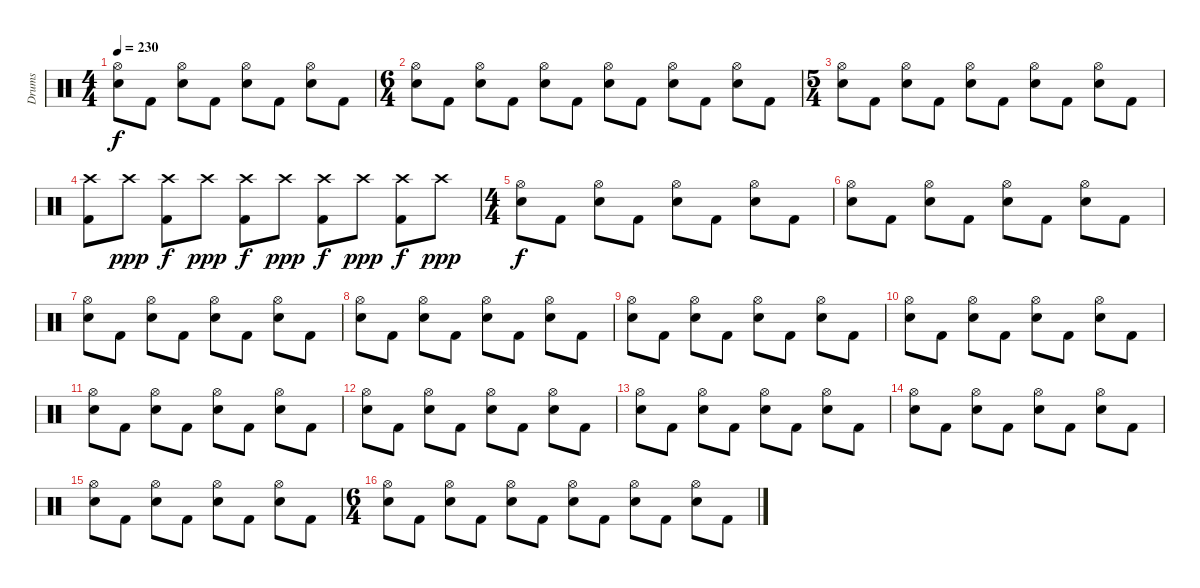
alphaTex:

\track ("Drums" "Drums") {instrument percussion}
\staff {score}
\articulation defaults
\ts (4 4)
\tempo 230
\clef neutral
\ks c
("Hi-Hat (open)" "Electric Snare (hit)").8{dy f} "Kick (hit) 2".8 ("Hi-Hat (open)" "Electric Snare (hit)").8 "Kick (hit) 2".8 ("Hi-Hat (open)" "Electric Snare (hit)").8 "Kick (hit) 2".8 ("Hi-Hat (open)" "Electric Snare (hit)").8 "Kick (hit) 2".8 |
\ts (6 4)
("Hi-Hat (open)" "Electric Snare (hit)").8 "Kick (hit) 2".8 ("Hi-Hat (open)" "Electric Snare (hit)").8 "Kick (hit) 2".8 ("Hi-Hat (open)" "Electric Snare (hit)").8 "Kick (hit) 2".8 ("Hi-Hat (open)" "Electric Snare (hit)").8 "Kick (hit) 2".8 ("Hi-Hat (open)" "Electric Snare (hit)").8 "Kick (hit) 2".8 ("Hi-Hat (open)" "Electric Snare (hit)").8 "Kick (hit) 2".8 |
\ts (5 4)
("Hi-Hat (open)" "Electric Snare (hit)").8 "Kick (hit) 2".8 ("Hi-Hat (open)" "Electric Snare (hit)").8 "Kick (hit) 2".8 ("Hi-Hat (open)" "Electric Snare (hit)").8 "Kick (hit) 2".8 ("Hi-Hat (open)" "Electric Snare (hit)").8 "Kick (hit) 2".8 ("Hi-Hat (open)" "Electric Snare (hit)").8 "Kick (hit) 2".8 |
("Crash high (hit)" "Kick (hit) 2").8 "Crash high (hit)".8{dy ppp} ("Crash high (hit)" "Kick (hit) 2").8{dy f} "Crash high (hit)".8{dy ppp} ("Crash high (hit)" "Kick (hit) 2").8{dy f} "Crash high (hit)".8{dy ppp} ("Crash high (hit)" "Kick (hit) 2").8{dy f} "Crash high (hit)".8{dy ppp} ("Crash high (hit)" "Kick (hit) 2").8{dy f} "Crash high (hit)".8{dy ppp} |
\ts (4 4)
("Hi-Hat (open)" "Electric Snare (hit)").8{dy f} "Kick (hit) 2".8 ("Hi-Hat (open)" "Electric Snare (hit)").8 "Kick (hit) 2".8 ("Hi-Hat (open)" "Electric Snare (hit)").8 "Kick (hit) 2".8 ("Hi-Hat (open)" "Electric Snare (hit)").8 "Kick (hit) 2".8 |
("Hi-Hat (open)" "Electric Snare (hit)").8 "Kick (hit) 2".8 ("Hi-Hat (open)" "Electric Snare (hit)").8 "Kick (hit) 2".8 ("Hi-Hat (open)" "Electric Snare (hit)").8 "Kick (hit) 2".8 ("Hi-Hat (open)" "Electric Snare (hit)").8 "Kick (hit) 2".8 |
("Hi-Hat (open)" "Electric Snare (hit)").8 "Kick (hit) 2".8 ("Hi-Hat (open)" "Electric Snare (hit)").8 "Kick (hit) 2".8 ("Hi-Hat (open)" "Electric Snare (hit)").8 "Kick (hit) 2".8 ("Hi-Hat (open)" "Electric Snare (hit)").8 "Kick (hit) 2".8 |
("Hi-Hat (open)" "Electric Snare (hit)").8 "Kick (hit) 2".8 ("Hi-Hat (open)" "Electric Snare (hit)").8 "Kick (hit) 2".8 ("Hi-Hat (open)" "Electric Snare (hit)").8 "Kick (hit) 2".8 ("Hi-Hat (open)" "Electric Snare (hit)").8 "Kick (hit) 2".8 |
("Hi-Hat (open)" "Electric Snare (hit)").8 "Kick (hit) 2".8 ("Hi-Hat (open)" "Electric Snare (hit)").8 "Kick (hit) 2".8 ("Hi-Hat (open)" "Electric Snare (hit)").8 "Kick (hit) 2".8 ("Hi-Hat (open)" "Electric Snare (hit)").8 "Kick (hit) 2".8 |
("Hi-Hat (open)" "Electric Snare (hit)").8 "Kick (hit) 2".8 ("Hi-Hat (open)" "Electric Snare (hit)").8 "Kick (hit) 2".8 ("Hi-Hat (open)" "Electric Snare (hit)").8 "Kick (hit) 2".8 ("Hi-Hat (open)" "Electric Snare (hit)").8 "Kick (hit) 2".8 |
("Hi-Hat (open)" "Electric Snare (hit)").8 "Kick (hit) 2".8 ("Hi-Hat (open)" "Electric Snare (hit)").8 "Kick (hit) 2".8 ("Hi-Hat (open)" "Electric Snare (hit)").8 "Kick (hit) 2".8 ("Hi-Hat (open)" "Electric Snare (hit)").8 "Kick (hit) 2".8 |
("Hi-Hat (open)" "Electric Snare (hit)").8 "Kick (hit) 2".8 ("Hi-Hat (open)" "Electric Snare (hit)").8 "Kick (hit) 2".8 ("Hi-Hat (open)" "Electric Snare (hit)").8 "Kick (hit) 2".8 ("Hi-Hat (open)" "Electric Snare (hit)").8 "Kick (hit) 2".8 |
("Hi-Hat (open)" "Electric Snare (hit)").8 "Kick (hit) 2".8 ("Hi-Hat (open)" "Electric Snare (hit)").8 "Kick (hit) 2".8 ("Hi-Hat (open)" "Electric Snare (hit)").8 "Kick (hit) 2".8 ("Hi-Hat (open)" "Electric Snare (hit)").8 "Kick (hit) 2".8 |
("Hi-Hat (open)" "Electric Snare (hit)").8 "Kick (hit) 2".8 ("Hi-Hat (open)" "Electric Snare (hit)").8 "Kick (hit) 2".8 ("Hi-Hat (open)" "Electric Snare (hit)").8 "Kick (hit) 2".8 ("Hi-Hat (open)" "Electric Snare (hit)").8 "Kick (hit) 2".8 |
("Hi-Hat (open)" "Electric Snare (hit)").8 "Kick (hit) 2".8 ("Hi-Hat (open)" "Electric Snare (hit)").8 "Kick (hit) 2".8 ("Hi-Hat (open)" "Electric Snare (hit)").8 "Kick (hit) 2".8 ("Hi-Hat (open)" "Electric Snare (hit)").8 "Kick (hit) 2".8 |
\ts (6 4)
("Hi-Hat (open)" "Electric Snare (hit)").8 "Kick (hit) 2".8 ("Hi-Hat (open)" "Electric Snare (hit)").8 "Kick (hit) 2".8 ("Hi-Hat (open)" "Electric Snare (hit)").8 "Kick (hit) 2".8 ("Hi-Hat (open)" "Electric Snare (hit)").8 "Kick (hit) 2".8 ("Hi-Hat (open)" "Electric Snare (hit)").8 "Kick (hit) 2".8 ("Hi-Hat (open)" "Electric Snare (hit)").8 "Kick (hit) 2".8
